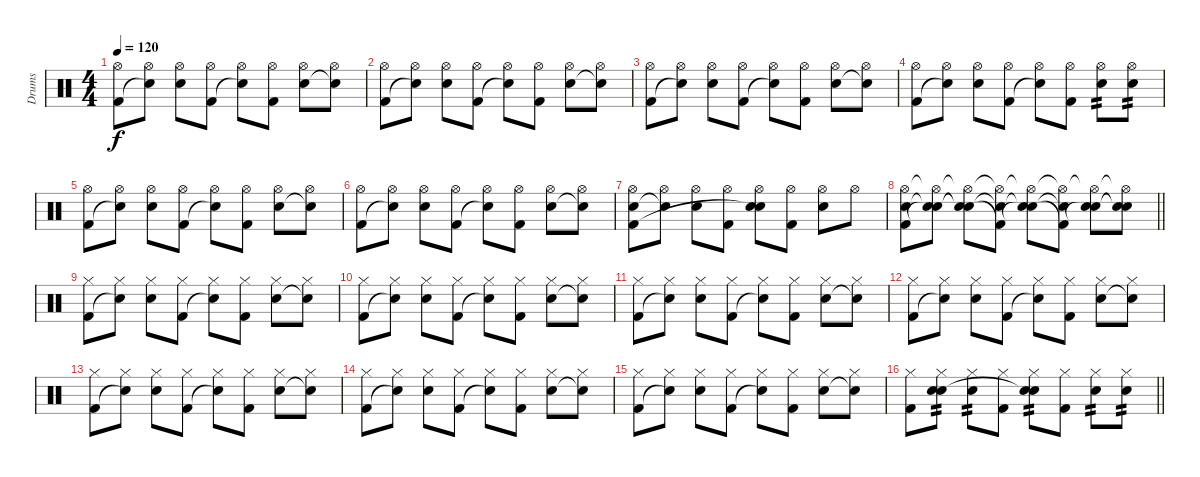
\track ("Drums" "Drums") {instrument percussion}
\staff {score}
\articulation defaults
\ts (4 4)
\tempo 120
\clef neutral
\ks c
("Hi-Hat (open)" "Kick (hit) 2").8{dy f} ("Hi-Hat (open)" "Snare (hit)"{t}).8 ("Hi-Hat (open)" "Electric Snare (hit)").8 ("Hi-Hat (open)" "Kick (hit) 2").8 ("Hi-Hat (open)" "Snare (hit)"{t}).8 ("Hi-Hat (open)" "Kick (hit) 2").8 ("Hi-Hat (open)" "Electric Snare (hit)").8 ("Hi-Hat (open)" "Snare (hit)"{t}).8 |
("Hi-Hat (open)" "Kick (hit) 2").8 ("Hi-Hat (open)" "Snare (hit)"{t}).8 ("Hi-Hat (open)" "Electric Snare (hit)").8 ("Hi-Hat (open)" "Kick (hit) 2").8 ("Hi-Hat (open)" "Snare (hit)"{t}).8 ("Hi-Hat (open)" "Kick (hit) 2").8 ("Hi-Hat (open)" "Electric Snare (hit)").8 ("Hi-Hat (open)" "Snare (hit)"{t}).8 |
("Hi-Hat (open)" "Kick (hit) 2").8 ("Hi-Hat (open)" "Snare (hit)"{t}).8 ("Hi-Hat (open)" "Electric Snare (hit)").8 ("Hi-Hat (open)" "Kick (hit) 2").8 ("Hi-Hat (open)" "Snare (hit)"{t}).8 ("Hi-Hat (open)" "Kick (hit) 2").8 ("Hi-Hat (open)" "Electric Snare (hit)").8 ("Hi-Hat (open)" "Snare (hit)"{t}).8 |
("Hi-Hat (open)" "Kick (hit) 2").8 ("Hi-Hat (open)" "Snare (hit)"{t}).8 ("Hi-Hat (open)" "Electric Snare (hit)").8 ("Hi-Hat (open)" "Kick (hit) 2").8 ("Hi-Hat (open)" "Snare (hit)"{t}).8 ("Hi-Hat (open)" "Kick (hit) 2").8 ("Hi-Hat (open)" "Electric Snare (hit)").8{tp 2} ("Hi-Hat (open)" "Electric Snare (hit)").8{tp 2} |
("Hi-Hat (open)" "Kick (hit) 2").8 ("Hi-Hat (open)" "Snare (hit)"{t}).8 ("Hi-Hat (open)" "Electric Snare (hit)").8 ("Hi-Hat (open)" "Kick (hit) 2").8 ("Hi-Hat (open)" "Snare (hit)"{t}).8 ("Hi-Hat (open)" "Kick (hit) 2").8 ("Hi-Hat (open)" "Electric Snare (hit)").8 ("Hi-Hat (open)" "Snare (hit)"{t}).8 |
("Hi-Hat (open)" "Kick (hit) 2").8 ("Hi-Hat (open)" "Snare (hit)"{t}).8 ("Hi-Hat (open)" "Electric Snare (hit)").8 ("Hi-Hat (open)" "Kick (hit) 2").8 ("Hi-Hat (open)" "Snare (hit)"{t}).8 ("Hi-Hat (open)" "Kick (hit) 2").8 ("Hi-Hat (open)" "Electric Snare (hit)").8 ("Hi-Hat (open)" "Snare (hit)"{t}).8 |
("Hi-Hat (open)" "Electric Snare (hit)" "Kick (hit) 2").8 ("Hi-Hat (open)" "Snare (hit)"{t}).8 ("Hi-Hat (open)" "Electric Snare (hit)").8 ("Hi-Hat (open)" "Kick (hit) 2").8 ("Hi-Hat (open)" "Electric Snare (hit)" "Snare (hit)"{t}).8 ("Hi-Hat (open)" "Kick (hit) 2").8 ("Hi-Hat (open)" "Electric Snare (hit)").8 "Hi-Hat (open)".8 |
\barLineRight lightlight
("Hi-Hat (open)" "Electric Snare (hit)" "Kick (hit) 2").8 ("Hi-Hat (open)"{t} "Snare (hit)"{t} "Snare (hit)"{t}).8 ("Hi-Hat (open)"{t} "Electric Snare (hit)"{t} "Snare (hit)"{t}).8 ("Hi-Hat (open)"{t} "Electric Snare (hit)"{t} "Kick (hit) 2"{t}).8 ("Hi-Hat (open)"{t} "Snare (hit)"{t} "Snare (hit)"{t}).8 ("Hi-Hat (open)"{t} "Electric Snare (hit)"{t} "Kick (hit) 2"{t}).8 ("Hi-Hat (open)"{t} "Electric Snare (hit)" "Snare (hit)"{t}).8 ("Hi-Hat (open)"{t} "Electric Snare (hit)"{t} "Snare (hit)"{t}).8 |
("Hi-Hat (closed)" "Kick (hit) 2").8 ("Hi-Hat (closed)" "Snare (hit)"{t}).8 ("Hi-Hat (closed)" "Electric Snare (hit)").8 ("Hi-Hat (closed)" "Kick (hit) 2").8 ("Hi-Hat (closed)" "Snare (hit)"{t}).8 ("Hi-Hat (closed)" "Kick (hit) 2").8 ("Hi-Hat (closed)" "Electric Snare (hit)").8 ("Hi-Hat (closed)" "Snare (hit)"{t}).8 |
("Hi-Hat (closed)" "Kick (hit) 2").8 ("Hi-Hat (closed)" "Snare (hit)"{t}).8 ("Hi-Hat (closed)" "Electric Snare (hit)").8 ("Hi-Hat (closed)" "Kick (hit) 2").8 ("Hi-Hat (closed)" "Snare (hit)"{t}).8 ("Hi-Hat (closed)" "Kick (hit) 2").8 ("Hi-Hat (closed)" "Electric Snare (hit)").8 ("Hi-Hat (closed)" "Snare (hit)"{t}).8 |
("Hi-Hat (closed)" "Kick (hit) 2").8 ("Hi-Hat (closed)" "Snare (hit)"{t}).8 ("Hi-Hat (closed)" "Electric Snare (hit)").8 ("Hi-Hat (closed)" "Kick (hit) 2").8 ("Hi-Hat (closed)" "Snare (hit)"{t}).8 ("Hi-Hat (closed)" "Kick (hit) 2").8 ("Hi-Hat (closed)" "Electric Snare (hit)").8 ("Hi-Hat (closed)" "Snare (hit)"{t}).8 |
("Hi-Hat (closed)" "Kick (hit) 2").8 ("Hi-Hat (closed)" "Snare (hit)"{t}).8 ("Hi-Hat (closed)" "Electric Snare (hit)").8 ("Hi-Hat (closed)" "Kick (hit) 2").8 ("Hi-Hat (closed)" "Snare (hit)"{t}).8 ("Hi-Hat (closed)" "Kick (hit) 2").8 ("Hi-Hat (closed)" "Electric Snare (hit)").8 ("Hi-Hat (closed)" "Snare (hit)"{t}).8 |
("Hi-Hat (closed)" "Kick (hit) 2").8 ("Hi-Hat (closed)" "Snare (hit)"{t}).8 ("Hi-Hat (closed)" "Electric Snare (hit)").8 ("Hi-Hat (closed)" "Kick (hit) 2").8 ("Hi-Hat (closed)" "Snare (hit)"{t}).8 ("Hi-Hat (closed)" "Kick (hit) 2").8 ("Hi-Hat (closed)" "Electric Snare (hit)").8 ("Hi-Hat (closed)" "Snare (hit)"{t}).8 |
("Hi-Hat (closed)" "Kick (hit) 2").8 ("Hi-Hat (closed)" "Snare (hit)"{t}).8 ("Hi-Hat (closed)" "Electric Snare (hit)").8 ("Hi-Hat (closed)" "Kick (hit) 2").8 ("Hi-Hat (closed)" "Snare (hit)"{t}).8 ("Hi-Hat (closed)" "Kick (hit) 2").8 ("Hi-Hat (closed)" "Electric Snare (hit)").8 ("Hi-Hat (closed)" "Snare (hit)"{t}).8 |
("Hi-Hat (closed)" "Kick (hit) 2").8 ("Hi-Hat (closed)" "Snare (hit)"{t}).8 ("Hi-Hat (closed)" "Electric Snare (hit)").8 ("Hi-Hat (closed)" "Kick (hit) 2").8 ("Hi-Hat (closed)" "Snare (hit)"{t}).8 ("Hi-Hat (closed)" "Kick (hit) 2").8 ("Hi-Hat (closed)" "Electric Snare (hit)").8 ("Hi-Hat (closed)" "Snare (hit)"{t}).8 |
\barLineRight lightlight
("Hi-Hat (closed)" "Kick (hit) 2").8 ("Hi-Hat (closed)" "Electric Snare (hit)" "Snare (hit)").8{tp 2} ("Hi-Hat (closed)" "Electric Snare (hit)").8{tp 2} ("Hi-Hat (closed)" "Kick (hit) 2").8 ("Hi-Hat (closed)" "Electric Snare (hit)" "Snare (hit)"{t}).8{tp 2} ("Hi-Hat (closed)" "Kick (hit) 2").8 ("Hi-Hat (closed)" "Electric Snare (hit)").8{tp 2} ("Hi-Hat (closed)" "Electric Snare (hit)").8{tp 2}
